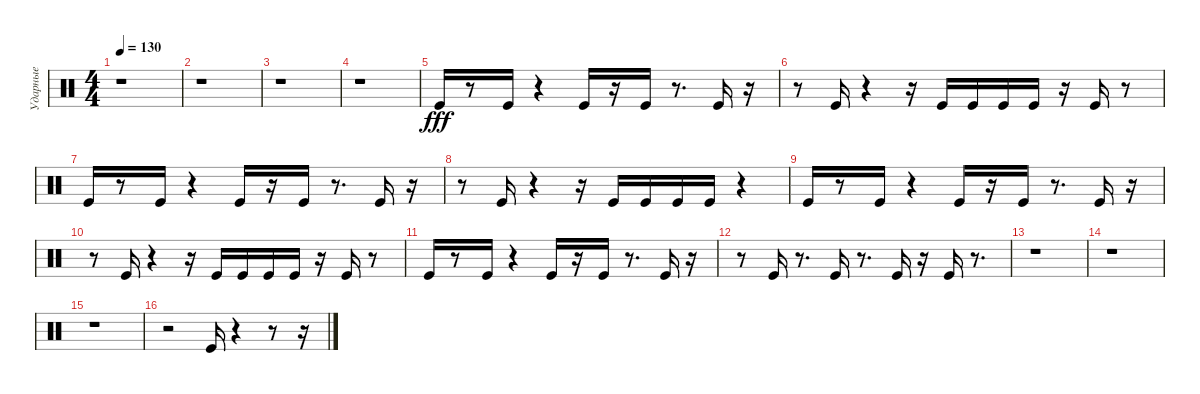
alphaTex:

\track ("Ударные" "Ударные") {instrument percussion}
\staff {score}
\articulation defaults
\ts (4 4)
\tempo 130
\clef neutral
\ks c
r.1{dy fff} |
r.1 |
r.1 |
r.1 |
"Kick (hit)".16 r.8 "Kick (hit)".16 r.4 "Kick (hit)".16 r.16 "Kick (hit)".16 r.8{d} "Kick (hit)".16 r.16 |
r.8 "Kick (hit)".16 r.4 r.16 "Kick (hit)".16 "Kick (hit)".16 "Kick (hit)".16 "Kick (hit)".16 r.16 "Kick (hit)".16 r.8 |
"Kick (hit)".16 r.8 "Kick (hit)".16 r.4 "Kick (hit)".16 r.16 "Kick (hit)".16 r.8{d} "Kick (hit)".16 r.16 |
r.8 "Kick (hit)".16 r.4 r.16 "Kick (hit)".16 "Kick (hit)".16 "Kick (hit)".16 "Kick (hit)".16 r.4 |
"Kick (hit)".16 r.8 "Kick (hit)".16 r.4 "Kick (hit)".16 r.16 "Kick (hit)".16 r.8{d} "Kick (hit)".16 r.16 |
r.8 "Kick (hit)".16 r.4 r.16 "Kick (hit)".16 "Kick (hit)".16 "Kick (hit)".16 "Kick (hit)".16 r.16 "Kick (hit)".16 r.8 |
"Kick (hit)".16 r.8 "Kick (hit)".16 r.4 "Kick (hit)".16 r.16 "Kick (hit)".16 r.8{d} "Kick (hit)".16 r.16 |
r.8 "Kick (hit)".16 r.8{d} "Kick (hit)".16 r.8{d} "Kick (hit)".16 r.16 "Kick (hit)".16 r.8{d} |
r.1 |
r.1 |
r.1 |
r.2 "Kick (hit)".16 r.4 r.8 r.16
